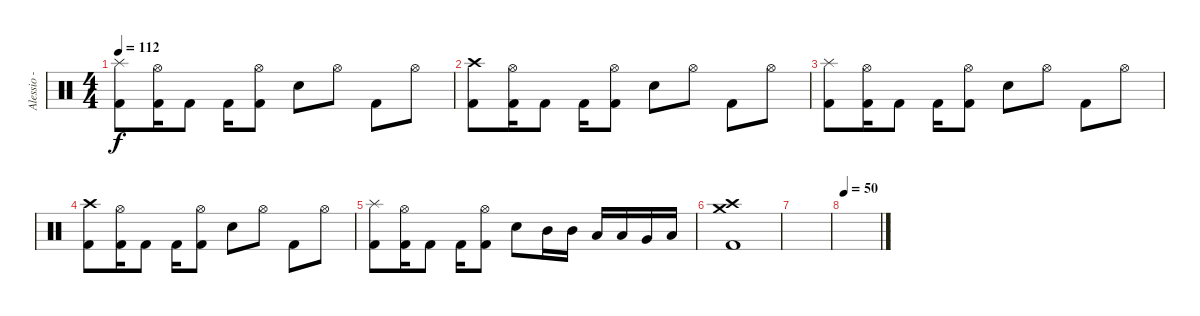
\track ("Alessio - Drums" "Alessio - ") {instrument percussion}
\staff {score}
\articulation defaults
\ts (4 4)
\tempo 112
\clef neutral
\ks c
("Splash (hit)" "Kick (hit) 2").8{dy f} ("Hi-Hat (open)" "Kick (hit) 2").16 "Kick (hit) 2".8 "Kick (hit) 2".16 ("Hi-Hat (open)" "Kick (hit) 2").8 "Electric Snare (hit)".8 "Hi-Hat (open)".8 "Kick (hit) 2".8 "Hi-Hat (open)".8 |
("Crash high (hit)" "Kick (hit) 2").8 ("Hi-Hat (open)" "Kick (hit) 2").16 "Kick (hit) 2".8 "Kick (hit) 2".16 ("Hi-Hat (open)" "Kick (hit) 2").8 "Electric Snare (hit)".8 "Hi-Hat (open)".8 "Kick (hit) 2".8 "Hi-Hat (open)".8 |
("Splash (hit)" "Kick (hit) 2").8 ("Hi-Hat (open)" "Kick (hit) 2").16 "Kick (hit) 2".8 "Kick (hit) 2".16 ("Hi-Hat (open)" "Kick (hit) 2").8 "Electric Snare (hit)".8 "Hi-Hat (open)".8 "Kick (hit) 2".8 "Hi-Hat (open)".8 |
("Crash high (hit)" "Kick (hit) 2").8 ("Hi-Hat (open)" "Kick (hit) 2").16 "Kick (hit) 2".8 "Kick (hit) 2".16 ("Hi-Hat (open)" "Kick (hit) 2").8 "Electric Snare (hit)".8 "Hi-Hat (open)".8 "Kick (hit) 2".8 "Hi-Hat (open)".8 |
("Splash (hit)" "Kick (hit) 2").8 ("Hi-Hat (open)" "Kick (hit) 2").16 "Kick (hit) 2".8 "Kick (hit) 2".16 ("Hi-Hat (open)" "Kick (hit) 2").8 "Electric Snare (hit)".8 "Mid Tom (hit)".16 "Mid Tom (hit)".16 "Low Tom (hit)".16 "Low Tom (hit)".16 "Very Low Tom (hit)".16 "Low Floor Tom (hit)".16 |
("Crash high (hit)" "Crash medium (hit)" "Kick (hit) 2").1 |
|
\tempo 50
